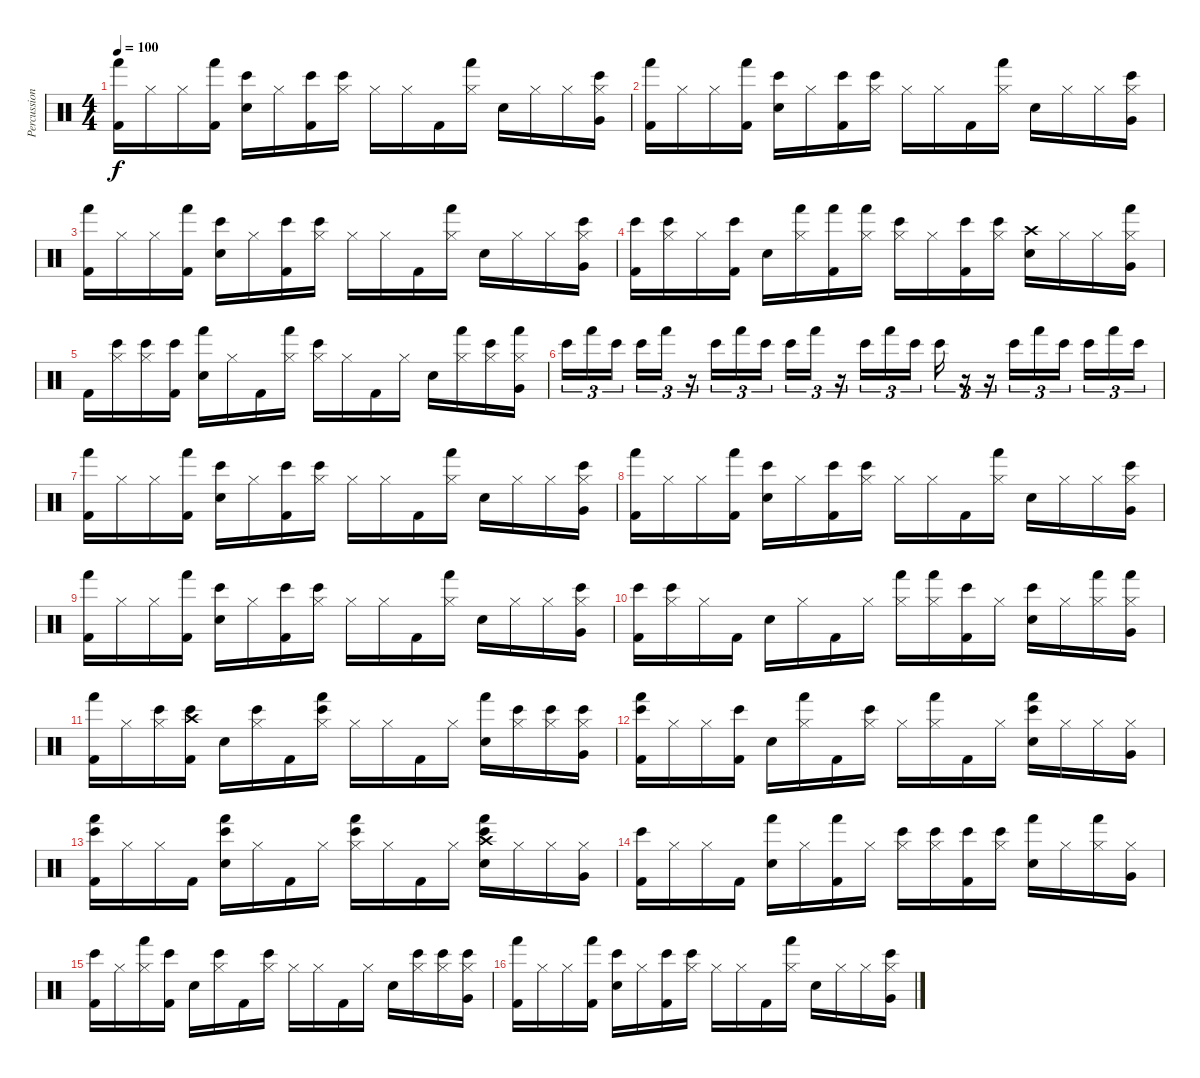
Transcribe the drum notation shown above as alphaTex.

\track ("Percussions" "Percussion") {instrument percussion}
\staff {score}
\articulation defaults
\ts (4 4)
\tempo 100
\clef neutral
\ks c
("Kick (hit) 2" "Hand (hit)").16{dy f} "Hi-Hat (closed)".16 "Hi-Hat (closed)".16 ("Kick (hit) 2" "Hand (hit)").16 ("Electric Snare (hit)" "Bongo High (hit)").16 "Hi-Hat (closed)".16 ("Kick (hit) 2" "Bongo High (hit)").16 ("Hi-Hat (closed)" "Bongo High (hit)").16 "Hi-Hat (closed)".16 "Hi-Hat (closed)".16 "Kick (hit) 2".16 ("Hi-Hat (closed)" "Hand (hit)").16 "Electric Snare (hit)".16 "Hi-Hat (closed)".16 "Hi-Hat (closed)".16 ("Hi-Hat (closed)" "Bongo High (hit)" "Very Low Tom (hit)").16 |
("Kick (hit) 2" "Hand (hit)").16 "Hi-Hat (closed)".16 "Hi-Hat (closed)".16 ("Kick (hit) 2" "Hand (hit)").16 ("Electric Snare (hit)" "Bongo High (hit)").16 "Hi-Hat (closed)".16 ("Kick (hit) 2" "Bongo High (hit)").16 ("Hi-Hat (closed)" "Bongo High (hit)").16 "Hi-Hat (closed)".16 "Hi-Hat (closed)".16 "Kick (hit) 2".16 ("Hi-Hat (closed)" "Hand (hit)").16 "Electric Snare (hit)".16 "Hi-Hat (closed)".16 "Hi-Hat (closed)".16 ("Hi-Hat (closed)" "Bongo High (hit)" "Very Low Tom (hit)").16 |
("Kick (hit) 2" "Hand (hit)").16 "Hi-Hat (closed)".16 "Hi-Hat (closed)".16 ("Kick (hit) 2" "Hand (hit)").16 ("Electric Snare (hit)" "Bongo High (hit)").16 "Hi-Hat (closed)".16 ("Kick (hit) 2" "Bongo High (hit)").16 ("Hi-Hat (closed)" "Bongo High (hit)").16 "Hi-Hat (closed)".16 "Hi-Hat (closed)".16 "Kick (hit) 2".16 ("Hi-Hat (closed)" "Hand (hit)").16 "Electric Snare (hit)".16 "Hi-Hat (closed)".16 "Hi-Hat (closed)".16 ("Hi-Hat (closed)" "Bongo High (hit)" "Very Low Tom (hit)").16 |
("Kick (hit) 2" "Bongo High (hit)").16 ("Hi-Hat (closed)" "Bongo High (hit)").16 "Hi-Hat (closed)".16 ("Kick (hit) 2" "Bongo High (hit)").16 "Electric Snare (hit)".16 ("Hi-Hat (closed)" "Hand (hit)").16 ("Kick (hit) 2" "Hand (hit)").16 ("Hi-Hat (closed)" "Hand (hit)").16 ("Hi-Hat (closed)" "Bongo High (hit)").16 "Hi-Hat (closed)".16 ("Kick (hit) 2" "Bongo High (hit)").16 ("Hi-Hat (closed)" "Bongo High (hit)").16 ("Electric Snare (hit)" "Crash high (hit)").16 "Hi-Hat (closed)".16 "Hi-Hat (closed)".16 ("Hi-Hat (closed)" "Hand (hit)" "Very Low Tom (hit)").16 |
"Kick (hit) 2".16 ("Hi-Hat (closed)" "Bongo High (hit)").16 ("Hi-Hat (closed)" "Bongo High (hit)").16 ("Kick (hit) 2" "Bongo High (hit)").16 ("Electric Snare (hit)" "Hand (hit)").16 "Hi-Hat (closed)".16 "Kick (hit) 2".16 ("Hi-Hat (closed)" "Hand (hit)").16 ("Hi-Hat (closed)" "Bongo High (hit)").16 "Hi-Hat (closed)".16 "Kick (hit) 2".16 "Hi-Hat (closed)".16 "Electric Snare (hit)".16 ("Hi-Hat (closed)" "Hand (hit)").16 ("Hi-Hat (closed)" "Bongo High (hit)").16 ("Hi-Hat (closed)" "Hand (hit)" "Very Low Tom (hit)").16 |
"Bongo High (hit)".16{tu (3 2)} "Hand (hit)".16{tu (3 2)} "Bongo High (hit)".16{tu (3 2)} "Bongo High (hit)".16{tu (3 2)} "Hand (hit)".16{tu (3 2)} r.16{tu (3 2)} "Bongo High (hit)".16{tu (3 2)} "Hand (hit)".16{tu (3 2)} "Bongo High (hit)".16{tu (3 2)} "Bongo High (hit)".16{tu (3 2)} "Hand (hit)".16{tu (3 2)} r.16{tu (3 2)} "Bongo High (hit)".16{tu (3 2)} "Hand (hit)".16{tu (3 2)} "Bongo High (hit)".16{tu (3 2)} "Bongo High (hit)".16{tu (3 2)} r.16{tu (3 2)} r.16{tu (3 2)} "Bongo High (hit)".16{tu (3 2)} "Hand (hit)".16{tu (3 2)} "Bongo High (hit)".16{tu (3 2)} "Bongo High (hit)".16{tu (3 2)} "Hand (hit)".16{tu (3 2)} "Bongo High (hit)".16{tu (3 2)} |
("Kick (hit) 2" "Hand (hit)").16 "Hi-Hat (closed)".16 "Hi-Hat (closed)".16 ("Kick (hit) 2" "Hand (hit)").16 ("Electric Snare (hit)" "Bongo High (hit)").16 "Hi-Hat (closed)".16 ("Kick (hit) 2" "Bongo High (hit)").16 ("Hi-Hat (closed)" "Bongo High (hit)").16 "Hi-Hat (closed)".16 "Hi-Hat (closed)".16 "Kick (hit) 2".16 ("Hi-Hat (closed)" "Hand (hit)").16 "Electric Snare (hit)".16 "Hi-Hat (closed)".16 "Hi-Hat (closed)".16 ("Hi-Hat (closed)" "Bongo High (hit)" "Very Low Tom (hit)").16 |
("Kick (hit) 2" "Hand (hit)").16 "Hi-Hat (closed)".16 "Hi-Hat (closed)".16 ("Kick (hit) 2" "Hand (hit)").16 ("Electric Snare (hit)" "Bongo High (hit)").16 "Hi-Hat (closed)".16 ("Kick (hit) 2" "Bongo High (hit)").16 ("Hi-Hat (closed)" "Bongo High (hit)").16 "Hi-Hat (closed)".16 "Hi-Hat (closed)".16 "Kick (hit) 2".16 ("Hi-Hat (closed)" "Hand (hit)").16 "Electric Snare (hit)".16 "Hi-Hat (closed)".16 "Hi-Hat (closed)".16 ("Hi-Hat (closed)" "Bongo High (hit)" "Very Low Tom (hit)").16 |
("Kick (hit) 2" "Hand (hit)").16 "Hi-Hat (closed)".16 "Hi-Hat (closed)".16 ("Kick (hit) 2" "Hand (hit)").16 ("Electric Snare (hit)" "Bongo High (hit)").16 "Hi-Hat (closed)".16 ("Kick (hit) 2" "Bongo High (hit)").16 ("Hi-Hat (closed)" "Bongo High (hit)").16 "Hi-Hat (closed)".16 "Hi-Hat (closed)".16 "Kick (hit) 2".16 ("Hi-Hat (closed)" "Hand (hit)").16 "Electric Snare (hit)".16 "Hi-Hat (closed)".16 "Hi-Hat (closed)".16 ("Hi-Hat (closed)" "Bongo High (hit)" "Very Low Tom (hit)").16 |
("Kick (hit) 2" "Bongo High (hit)").16 ("Hi-Hat (closed)" "Bongo High (hit)").16 "Hi-Hat (closed)".16 "Kick (hit) 2".16 "Electric Snare (hit)".16 "Hi-Hat (closed)".16 "Kick (hit) 2".16 "Hi-Hat (closed)".16 ("Hi-Hat (closed)" "Hand (hit)").16 ("Hi-Hat (closed)" "Hand (hit)").16 ("Kick (hit) 2" "Bongo High (hit)").16 "Hi-Hat (closed)".16 ("Electric Snare (hit)" "Bongo High (hit)").16 "Hi-Hat (closed)".16 ("Hi-Hat (closed)" "Hand (hit)").16 ("Hi-Hat (closed)" "Hand (hit)" "Very Low Tom (hit)").16 |
("Kick (hit) 2" "Hand (hit)").16 "Hi-Hat (closed)".16 ("Hi-Hat (closed)" "Bongo High (hit)").16 ("Kick (hit) 2" "Bongo High (hit)" "Crash high (hit)").16 "Electric Snare (hit)".16 ("Hi-Hat (closed)" "Bongo High (hit)").16 "Kick (hit) 2".16 ("Hi-Hat (closed)" "Hand (hit)" "Bongo High (hit)").16 "Hi-Hat (closed)".16 "Hi-Hat (closed)".16 "Kick (hit) 2".16 "Hi-Hat (closed)".16 ("Electric Snare (hit)" "Hand (hit)").16 ("Hi-Hat (closed)" "Bongo High (hit)").16 ("Hi-Hat (closed)" "Bongo High (hit)").16 ("Hi-Hat (closed)" "Bongo High (hit)" "Very Low Tom (hit)").16 |
("Kick (hit) 2" "Hand (hit)" "Bongo High (hit)").16 "Hi-Hat (closed)".16 "Hi-Hat (closed)".16 ("Kick (hit) 2" "Bongo High (hit)").16 "Electric Snare (hit)".16 ("Hi-Hat (closed)" "Hand (hit)").16 "Kick (hit) 2".16 ("Hi-Hat (closed)" "Bongo High (hit)").16 "Hi-Hat (closed)".16 ("Hi-Hat (closed)" "Hand (hit)").16 "Kick (hit) 2".16 "Hi-Hat (closed)".16 ("Electric Snare (hit)" "Bongo High (hit)" "Hand (hit)").16 "Hi-Hat (closed)".16 "Hi-Hat (closed)".16 ("Hi-Hat (closed)" "Very Low Tom (hit)").16 |
("Kick (hit) 2" "Bongo High (hit)" "Hand (hit)").16 "Hi-Hat (closed)".16 "Hi-Hat (closed)".16 "Kick (hit) 2".16 ("Electric Snare (hit)" "Bongo High (hit)" "Hand (hit)").16 "Hi-Hat (closed)".16 "Kick (hit) 2".16 "Hi-Hat (closed)".16 ("Hi-Hat (closed)" "Bongo High (hit)" "Hand (hit)").16 "Hi-Hat (closed)".16 "Kick (hit) 2".16 "Hi-Hat (closed)".16 ("Electric Snare (hit)" "Hand (hit)" "Bongo High (hit)" "Crash high (hit)").16 "Hi-Hat (closed)".16 "Hi-Hat (closed)".16 ("Hi-Hat (closed)" "Very Low Tom (hit)").16 |
("Kick (hit) 2" "Bongo High (hit)").16 "Hi-Hat (closed)".16 "Hi-Hat (closed)".16 "Kick (hit) 2".16 ("Electric Snare (hit)" "Hand (hit)").16 "Hi-Hat (closed)".16 ("Kick (hit) 2" "Hand (hit)").16 "Hi-Hat (closed)".16 ("Hi-Hat (closed)" "Bongo High (hit)").16 ("Hi-Hat (closed)" "Bongo High (hit)").16 ("Kick (hit) 2" "Bongo High (hit)").16 ("Hi-Hat (closed)" "Bongo High (hit)").16 ("Electric Snare (hit)" "Hand (hit)").16 "Hi-Hat (closed)".16 ("Hi-Hat (closed)" "Hand (hit)").16 ("Hi-Hat (closed)" "Very Low Tom (hit)").16 |
("Kick (hit) 2" "Bongo High (hit)").16 "Hi-Hat (closed)".16 ("Hi-Hat (closed)" "Hand (hit)").16 ("Kick (hit) 2" "Bongo High (hit)").16 "Electric Snare (hit)".16 ("Hi-Hat (closed)" "Bongo High (hit)").16 "Kick (hit) 2".16 ("Hi-Hat (closed)" "Bongo High (hit)").16 "Hi-Hat (closed)".16 "Hi-Hat (closed)".16 "Kick (hit) 2".16 "Hi-Hat (closed)".16 "Electric Snare (hit)".16 ("Hi-Hat (closed)" "Bongo High (hit)").16 ("Hi-Hat (closed)" "Bongo High (hit)").16 ("Hi-Hat (closed)" "Bongo High (hit)" "Very Low Tom (hit)").16 |
("Kick (hit) 2" "Hand (hit)").16 "Hi-Hat (closed)".16 "Hi-Hat (closed)".16 ("Kick (hit) 2" "Hand (hit)").16 ("Electric Snare (hit)" "Bongo High (hit)").16 "Hi-Hat (closed)".16 ("Kick (hit) 2" "Bongo High (hit)").16 ("Hi-Hat (closed)" "Bongo High (hit)").16 "Hi-Hat (closed)".16 "Hi-Hat (closed)".16 "Kick (hit) 2".16 ("Hi-Hat (closed)" "Hand (hit)").16 "Electric Snare (hit)".16 "Hi-Hat (closed)".16 "Hi-Hat (closed)".16 ("Hi-Hat (closed)" "Bongo High (hit)" "Very Low Tom (hit)").16
